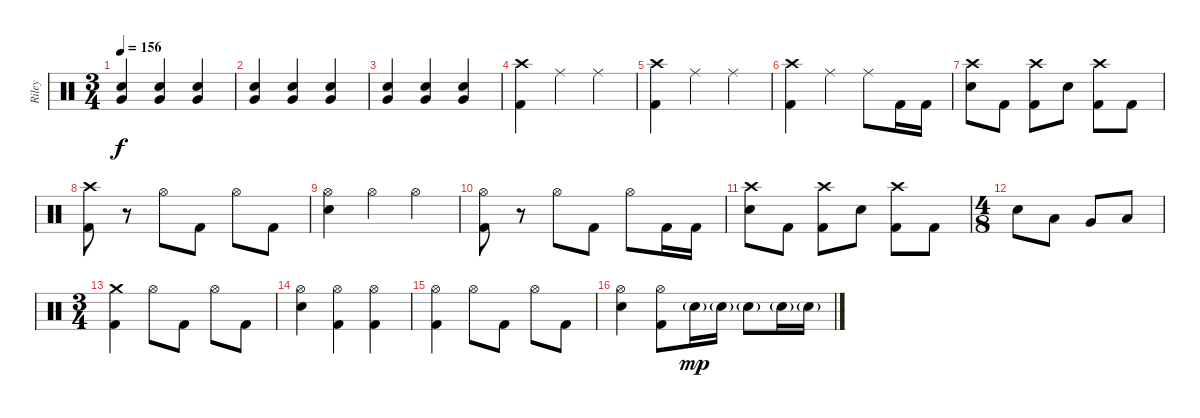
\track ("Riley" "Riley") {instrument percussion}
\staff {score}
\articulation defaults
\ts (3 4)
\tempo 156
\clef neutral
\ks c
("Very Low Tom (hit)" "Electric Snare (hit)").4{dy f volume 10} ("Very Low Tom (hit)" "Electric Snare (hit)").4 ("Very Low Tom (hit)" "Electric Snare (hit)").4 |
("Very Low Tom (hit)" "Electric Snare (hit)").4{volume 12} ("Very Low Tom (hit)" "Electric Snare (hit)").4 ("Very Low Tom (hit)" "Electric Snare (hit)").4 |
("Very Low Tom (hit)" "Electric Snare (hit)").4{volume 13} ("Very Low Tom (hit)" "Electric Snare (hit)").4 ("Very Low Tom (hit)" "Electric Snare (hit)").4 |
("Crash high (hit)" "Kick (hit) 2").4 "Ride (middle)".4 "Ride (middle)".4 |
("Crash high (hit)" "Kick (hit) 2").4 "Ride (middle)".4 "Ride (middle)".4 |
("Crash high (hit)" "Kick (hit) 2").4 "Ride (middle)".4 "Ride (middle)".8 "Kick (hit) 2".16 "Kick (hit) 2".16 |
("Crash high (hit)" "Electric Snare (hit)").8 "Kick (hit) 2".8 ("Crash high (hit)" "Kick (hit) 2").8 "Electric Snare (hit)".8 ("Crash high (hit)" "Kick (hit) 2").8 "Kick (hit) 2".8 |
("Crash high (hit)" "Kick (hit) 2").8 r.8 "Hi-Hat (open)".8 "Kick (hit) 2".8 "Hi-Hat (open)".8 "Kick (hit) 2".8 |
("Hi-Hat (open)" "Electric Snare (hit)").4 "Hi-Hat (open)".4 "Hi-Hat (open)".4 |
("Hi-Hat (open)" "Kick (hit) 2").8 r.8 "Hi-Hat (open)".8 "Kick (hit) 2".8 "Hi-Hat (open)".8 "Kick (hit) 2".16 "Kick (hit) 2".16 |
("Crash high (hit)" "Electric Snare (hit)").8 "Kick (hit) 2".8 ("Crash high (hit)" "Kick (hit) 2").8 "Electric Snare (hit)".8 ("Crash high (hit)" "Kick (hit) 2").8 "Kick (hit) 2".8 |
\ts (4 8)
"Electric Snare (hit)".8 "Low Tom (hit)".8 "Very Low Tom (hit)".8 "Low Floor Tom (hit)".8 |
\ts (3 4)
("Crash medium (hit)" "Kick (hit) 2").4 "Hi-Hat (open)".8 "Kick (hit) 2".8 "Hi-Hat (open)".8 "Kick (hit) 2".8 |
("Hi-Hat (open)" "Electric Snare (hit)").4 ("Hi-Hat (open)" "Kick (hit) 2").4 ("Hi-Hat (open)" "Kick (hit) 2").4 |
("Hi-Hat (open)" "Kick (hit) 2").4 "Hi-Hat (open)".8 "Kick (hit) 2".8 "Hi-Hat (open)".8 "Kick (hit) 2".8 |
("Hi-Hat (open)" "Electric Snare (hit)").4 ("Hi-Hat (open)" "Kick (hit) 2").8 "Electric Snare (hit)"{g}.16{dy mp} "Electric Snare (hit)"{g}.16 "Electric Snare (hit)"{g}.8 "Electric Snare (hit)"{g}.16 "Electric Snare (hit)"{g}.16
